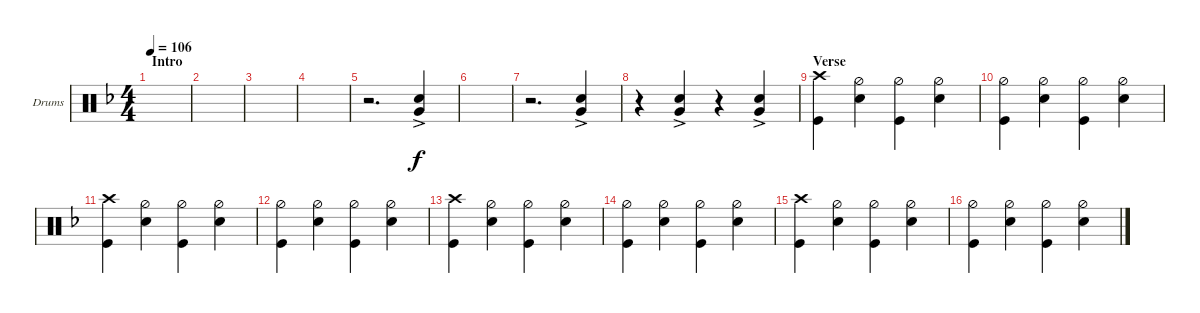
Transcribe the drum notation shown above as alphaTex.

\defaultSystemsLayout 4
\bracketExtendMode groupsimilarinstruments
\firstSystemTrackNameOrientation horizontal
\otherSystemsTrackNameOrientation horizontal
\track ("Simon Wright" "Drums") {instrument percussion}
\staff {score}
\articulation defaults
\ts (4 4)
\section ("" "Intro")
\tempo 106
\clef neutral
\ks dminor
|
|
|
|
r.2{d} ("Snare (hit) 2"{ac} "Very Low Tom (hit)").4 |
|
r.2{d} ("Snare (hit) 2"{ac} "Very Low Tom (hit)").4 |
r.4 ("Snare (hit) 2"{ac} "Very Low Tom (hit)").4 r.4 ("Snare (hit) 2"{ac} "Very Low Tom (hit)").4 |
\section ("" "Verse")
("Kick (hit)" "Crash high (hit)").4 ("Snare (hit) 2" "Hi-Hat (half)").4 ("Kick (hit)" "Hi-Hat (half)").4 ("Hi-Hat (half)" "Snare (hit) 2").4 |
("Kick (hit)" "Hi-Hat (half)").4 ("Hi-Hat (half)" "Snare (hit) 2").4 ("Kick (hit)" "Hi-Hat (half)").4 ("Hi-Hat (half)" "Snare (hit) 2").4 |
("Kick (hit)" "Crash high (hit)").4 ("Snare (hit) 2" "Hi-Hat (half)").4 ("Kick (hit)" "Hi-Hat (half)").4 ("Hi-Hat (half)" "Snare (hit) 2").4 |
("Kick (hit)" "Hi-Hat (half)").4 ("Hi-Hat (half)" "Snare (hit) 2").4 ("Kick (hit)" "Hi-Hat (half)").4 ("Hi-Hat (half)" "Snare (hit) 2").4 |
("Kick (hit)" "Crash high (hit)").4 ("Snare (hit) 2" "Hi-Hat (half)").4 ("Kick (hit)" "Hi-Hat (half)").4 ("Hi-Hat (half)" "Snare (hit) 2").4 |
("Kick (hit)" "Hi-Hat (half)").4 ("Hi-Hat (half)" "Snare (hit) 2").4 ("Kick (hit)" "Hi-Hat (half)").4 ("Hi-Hat (half)" "Snare (hit) 2").4 |
("Kick (hit)" "Crash high (hit)").4 ("Snare (hit) 2" "Hi-Hat (half)").4 ("Kick (hit)" "Hi-Hat (half)").4 ("Hi-Hat (half)" "Snare (hit) 2").4 |
("Kick (hit)" "Hi-Hat (half)").4 ("Hi-Hat (half)" "Snare (hit) 2").4 ("Kick (hit)" "Hi-Hat (half)").4 ("Hi-Hat (half)" "Snare (hit) 2").4
